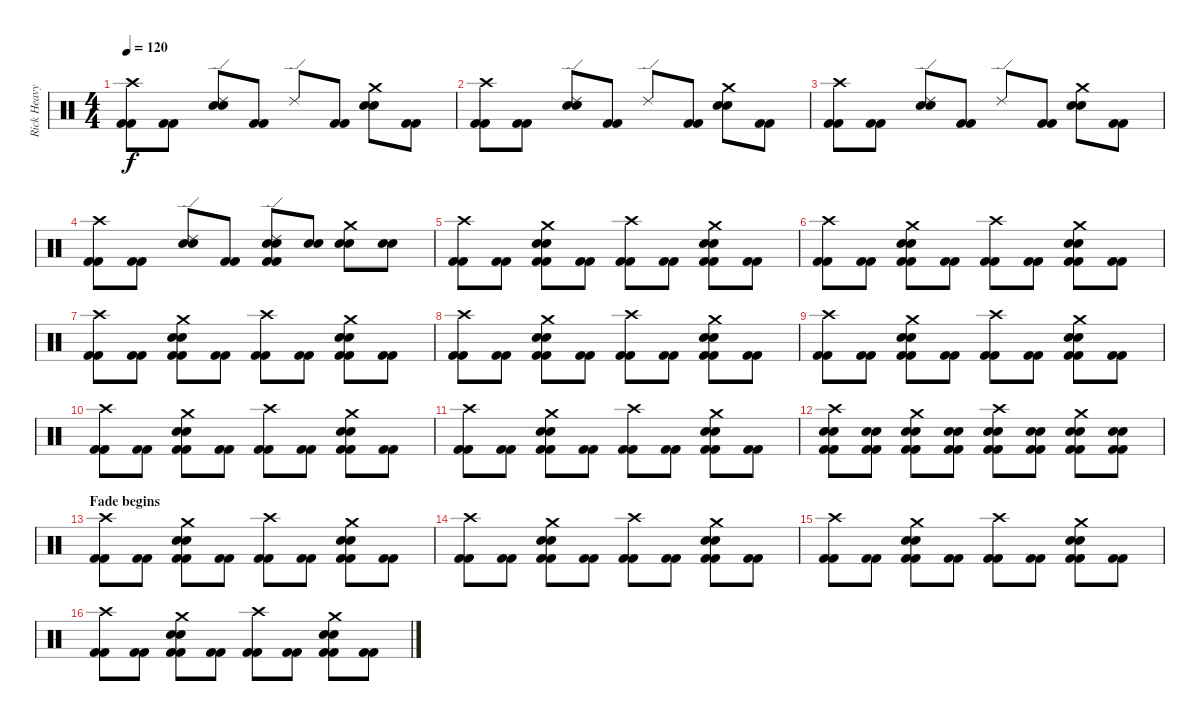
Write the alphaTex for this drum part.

\track ("Rick Heavy" "Rick Heavy") {instrument percussion}
\staff {score}
\articulation defaults
\ts (4 4)
\tempo 120
\clef neutral
\ks c
("Crash high (hit)" "Kick (hit) 2" "Kick (hit) 2").8{dy f} ("Kick (hit) 2" "Kick (hit) 2").8 ("Ride (edge) 2" "Electric Snare (hit)" "Snare (hit) 2").8 ("Kick (hit) 2" "Kick (hit) 2").8 "Ride (edge) 2".8 ("Kick (hit) 2" "Kick (hit) 2").8 ("Crash medium (hit)" "Electric Snare (hit)" "Snare (hit) 2").8 ("Kick (hit) 2" "Kick (hit) 2").8 |
("Crash high (hit)" "Kick (hit) 2" "Kick (hit) 2").8 ("Kick (hit) 2" "Kick (hit) 2").8 ("Ride (edge) 2" "Electric Snare (hit)" "Snare (hit) 2").8 ("Kick (hit) 2" "Kick (hit) 2").8 "Ride (edge) 2".8 ("Kick (hit) 2" "Kick (hit) 2").8 ("Crash medium (hit)" "Electric Snare (hit)" "Snare (hit) 2").8 ("Kick (hit) 2" "Kick (hit) 2").8 |
("Crash high (hit)" "Kick (hit) 2" "Kick (hit) 2").8 ("Kick (hit) 2" "Kick (hit) 2").8 ("Ride (edge) 2" "Electric Snare (hit)" "Snare (hit) 2").8 ("Kick (hit) 2" "Kick (hit) 2").8 "Ride (edge) 2".8 ("Kick (hit) 2" "Kick (hit) 2").8 ("Crash medium (hit)" "Electric Snare (hit)" "Snare (hit) 2").8 ("Kick (hit) 2" "Kick (hit) 2").8 |
("Crash high (hit)" "Kick (hit) 2" "Kick (hit) 2").8 ("Kick (hit) 2" "Kick (hit) 2").8 ("Ride (edge) 2" "Electric Snare (hit)" "Snare (hit) 2").8 ("Kick (hit) 2" "Kick (hit) 2").8 ("Ride (edge) 2" "Electric Snare (hit)" "Snare (hit) 2" "Kick (hit) 2" "Kick (hit) 2").8 ("Electric Snare (hit)" "Snare (hit) 2").8 ("Crash medium (hit)" "Electric Snare (hit)" "Snare (hit) 2").8 ("Electric Snare (hit)" "Snare (hit) 2").8 |
("Crash high (hit)" "Kick (hit) 2" "Kick (hit) 2").8 ("Kick (hit) 2" "Kick (hit) 2").8 ("Crash medium (hit)" "Electric Snare (hit)" "Snare (hit) 2" "Kick (hit) 2" "Kick (hit) 2").8 ("Kick (hit) 2" "Kick (hit) 2").8 ("Crash high (hit)" "Kick (hit) 2" "Kick (hit) 2").8 ("Kick (hit) 2" "Kick (hit) 2").8 ("Crash medium (hit)" "Electric Snare (hit)" "Snare (hit) 2" "Kick (hit) 2" "Kick (hit) 2").8 ("Kick (hit) 2" "Kick (hit) 2").8 |
("Crash high (hit)" "Kick (hit) 2" "Kick (hit) 2").8 ("Kick (hit) 2" "Kick (hit) 2").8 ("Crash medium (hit)" "Electric Snare (hit)" "Snare (hit) 2" "Kick (hit) 2" "Kick (hit) 2").8 ("Kick (hit) 2" "Kick (hit) 2").8 ("Crash high (hit)" "Kick (hit) 2" "Kick (hit) 2").8 ("Kick (hit) 2" "Kick (hit) 2").8 ("Crash medium (hit)" "Electric Snare (hit)" "Snare (hit) 2" "Kick (hit) 2" "Kick (hit) 2").8 ("Kick (hit) 2" "Kick (hit) 2").8 |
("Crash high (hit)" "Kick (hit) 2" "Kick (hit) 2").8 ("Kick (hit) 2" "Kick (hit) 2").8 ("Crash medium (hit)" "Electric Snare (hit)" "Snare (hit) 2" "Kick (hit) 2" "Kick (hit) 2").8 ("Kick (hit) 2" "Kick (hit) 2").8 ("Crash high (hit)" "Kick (hit) 2" "Kick (hit) 2").8 ("Kick (hit) 2" "Kick (hit) 2").8 ("Crash medium (hit)" "Electric Snare (hit)" "Snare (hit) 2" "Kick (hit) 2" "Kick (hit) 2").8 ("Kick (hit) 2" "Kick (hit) 2").8 |
("Crash high (hit)" "Kick (hit) 2" "Kick (hit) 2").8 ("Kick (hit) 2" "Kick (hit) 2").8 ("Crash medium (hit)" "Electric Snare (hit)" "Snare (hit) 2" "Kick (hit) 2" "Kick (hit) 2").8 ("Kick (hit) 2" "Kick (hit) 2").8 ("Crash high (hit)" "Kick (hit) 2" "Kick (hit) 2").8 ("Kick (hit) 2" "Kick (hit) 2").8 ("Crash medium (hit)" "Electric Snare (hit)" "Snare (hit) 2" "Kick (hit) 2" "Kick (hit) 2").8 ("Kick (hit) 2" "Kick (hit) 2").8 |
("Crash high (hit)" "Kick (hit) 2" "Kick (hit) 2").8 ("Kick (hit) 2" "Kick (hit) 2").8 ("Crash medium (hit)" "Electric Snare (hit)" "Snare (hit) 2" "Kick (hit) 2" "Kick (hit) 2").8 ("Kick (hit) 2" "Kick (hit) 2").8 ("Crash high (hit)" "Kick (hit) 2" "Kick (hit) 2").8 ("Kick (hit) 2" "Kick (hit) 2").8 ("Crash medium (hit)" "Electric Snare (hit)" "Snare (hit) 2" "Kick (hit) 2" "Kick (hit) 2").8 ("Kick (hit) 2" "Kick (hit) 2").8 |
("Crash high (hit)" "Kick (hit) 2" "Kick (hit) 2").8 ("Kick (hit) 2" "Kick (hit) 2").8 ("Crash medium (hit)" "Electric Snare (hit)" "Snare (hit) 2" "Kick (hit) 2" "Kick (hit) 2").8 ("Kick (hit) 2" "Kick (hit) 2").8 ("Crash high (hit)" "Kick (hit) 2" "Kick (hit) 2").8 ("Kick (hit) 2" "Kick (hit) 2").8 ("Crash medium (hit)" "Electric Snare (hit)" "Snare (hit) 2" "Kick (hit) 2" "Kick (hit) 2").8 ("Kick (hit) 2" "Kick (hit) 2").8 |
("Crash high (hit)" "Kick (hit) 2" "Kick (hit) 2").8{volume 15} ("Kick (hit) 2" "Kick (hit) 2").8 ("Crash medium (hit)" "Electric Snare (hit)" "Snare (hit) 2" "Kick (hit) 2" "Kick (hit) 2").8 ("Kick (hit) 2" "Kick (hit) 2").8 ("Crash high (hit)" "Kick (hit) 2" "Kick (hit) 2").8 ("Kick (hit) 2" "Kick (hit) 2").8 ("Crash medium (hit)" "Electric Snare (hit)" "Snare (hit) 2" "Kick (hit) 2" "Kick (hit) 2").8 ("Kick (hit) 2" "Kick (hit) 2").8 |
("Crash high (hit)" "Electric Snare (hit)" "Snare (hit) 2" "Kick (hit) 2" "Kick (hit) 2").8{volume 14} ("Electric Snare (hit)" "Snare (hit) 2" "Kick (hit) 2" "Kick (hit) 2").8 ("Crash medium (hit)" "Electric Snare (hit)" "Snare (hit) 2" "Kick (hit) 2" "Kick (hit) 2").8 ("Electric Snare (hit)" "Snare (hit) 2" "Kick (hit) 2" "Kick (hit) 2").8 ("Crash high (hit)" "Electric Snare (hit)" "Snare (hit) 2" "Kick (hit) 2" "Kick (hit) 2").8 ("Electric Snare (hit)" "Snare (hit) 2" "Kick (hit) 2" "Kick (hit) 2").8 ("Crash medium (hit)" "Electric Snare (hit)" "Snare (hit) 2" "Kick (hit) 2" "Kick (hit) 2").8 ("Electric Snare (hit)" "Snare (hit) 2" "Kick (hit) 2" "Kick (hit) 2").8 |
\section ("" "Fade begins")
("Crash high (hit)" "Kick (hit) 2" "Kick (hit) 2").8{volume 12} ("Kick (hit) 2" "Kick (hit) 2").8 ("Crash medium (hit)" "Electric Snare (hit)" "Snare (hit) 2" "Kick (hit) 2" "Kick (hit) 2").8 ("Kick (hit) 2" "Kick (hit) 2").8 ("Crash high (hit)" "Kick (hit) 2" "Kick (hit) 2").8 ("Kick (hit) 2" "Kick (hit) 2").8 ("Crash medium (hit)" "Electric Snare (hit)" "Snare (hit) 2" "Kick (hit) 2" "Kick (hit) 2").8 ("Kick (hit) 2" "Kick (hit) 2").8 |
("Crash high (hit)" "Kick (hit) 2" "Kick (hit) 2").8{volume 10} ("Kick (hit) 2" "Kick (hit) 2").8 ("Crash medium (hit)" "Electric Snare (hit)" "Snare (hit) 2" "Kick (hit) 2" "Kick (hit) 2").8 ("Kick (hit) 2" "Kick (hit) 2").8 ("Crash high (hit)" "Kick (hit) 2" "Kick (hit) 2").8 ("Kick (hit) 2" "Kick (hit) 2").8 ("Crash medium (hit)" "Electric Snare (hit)" "Snare (hit) 2" "Kick (hit) 2" "Kick (hit) 2").8 ("Kick (hit) 2" "Kick (hit) 2").8 |
("Crash high (hit)" "Kick (hit) 2" "Kick (hit) 2").8{volume 9} ("Kick (hit) 2" "Kick (hit) 2").8 ("Crash medium (hit)" "Electric Snare (hit)" "Snare (hit) 2" "Kick (hit) 2" "Kick (hit) 2").8 ("Kick (hit) 2" "Kick (hit) 2").8 ("Crash high (hit)" "Kick (hit) 2" "Kick (hit) 2").8 ("Kick (hit) 2" "Kick (hit) 2").8 ("Crash medium (hit)" "Electric Snare (hit)" "Snare (hit) 2" "Kick (hit) 2" "Kick (hit) 2").8 ("Kick (hit) 2" "Kick (hit) 2").8 |
("Crash high (hit)" "Kick (hit) 2" "Kick (hit) 2").8{volume 8} ("Kick (hit) 2" "Kick (hit) 2").8 ("Crash medium (hit)" "Electric Snare (hit)" "Snare (hit) 2" "Kick (hit) 2" "Kick (hit) 2").8 ("Kick (hit) 2" "Kick (hit) 2").8 ("Crash high (hit)" "Kick (hit) 2" "Kick (hit) 2").8 ("Kick (hit) 2" "Kick (hit) 2").8 ("Crash medium (hit)" "Electric Snare (hit)" "Snare (hit) 2" "Kick (hit) 2" "Kick (hit) 2").8 ("Kick (hit) 2" "Kick (hit) 2").8
